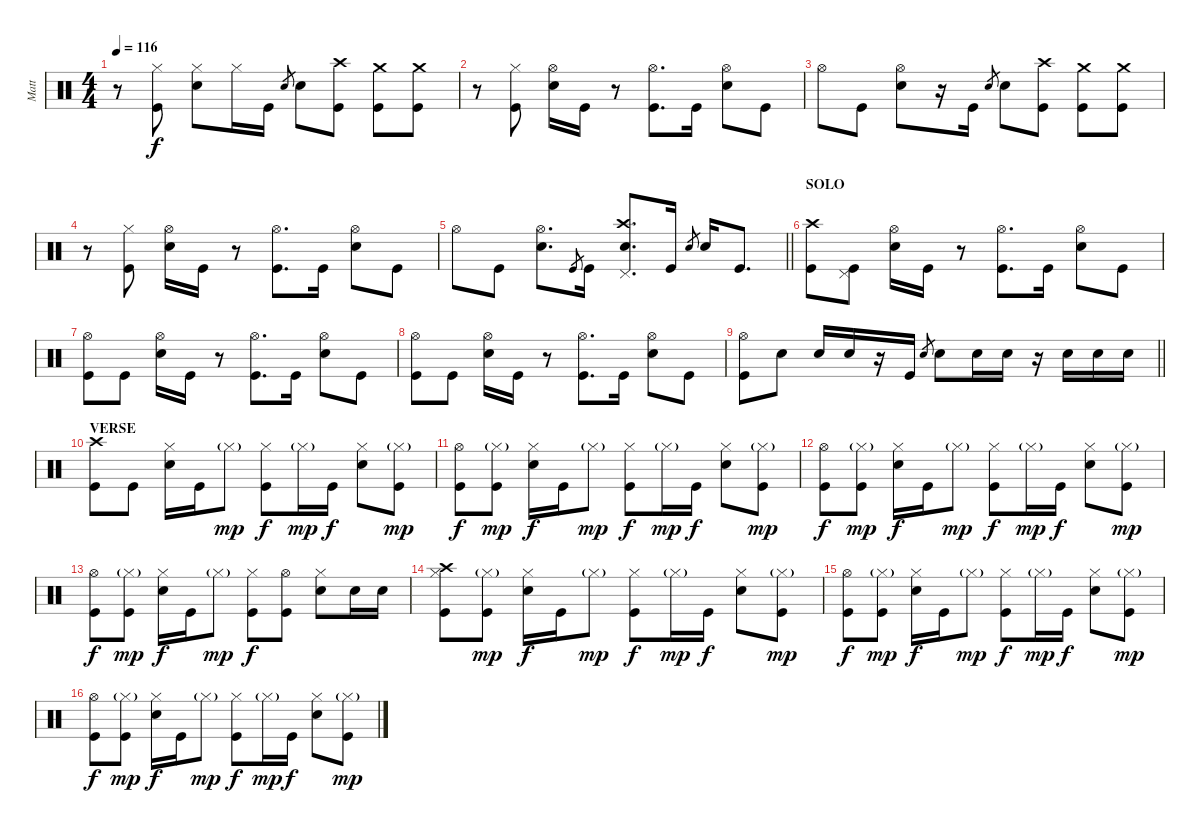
\track ("Matt" "Matt") {instrument percussion}
\staff {score}
\articulation defaults
\ts (4 4)
\tempo 116
\clef neutral
\ks c
r.8{dy f} ("Kick (hit)" "Hi-Hat (closed)").8 ("Snare (hit) 2" "Hi-Hat (closed)").8 "Hi-Hat (closed)".16 "Kick (hit)".16 "Snare (hit) 2".8{gr} "Snare (hit) 2".8 ("Crash high (hit)" "Kick (hit)").8 ("Crash medium (hit)" "Kick (hit)").8 ("Crash medium (hit)" "Kick (hit)").8 |
r.8 ("Kick (hit)" "Hi-Hat (closed)").8 ("Snare (hit) 2" "Hi-Hat (open)").16 "Kick (hit)".16 r.8 ("Kick (hit)" "Hi-Hat (open)").8{d} "Kick (hit)".16 ("Snare (hit) 2" "Hi-Hat (open)").8 "Kick (hit)".8 |
"Hi-Hat (open)".8 "Kick (hit)".8 ("Snare (hit) 2" "Hi-Hat (open)").8 r.16 "Kick (hit)".16 "Snare (hit) 2".8{gr} "Snare (hit) 2".8 ("Crash high (hit)" "Kick (hit)").8 ("Crash medium (hit)" "Kick (hit)").8 ("Crash medium (hit)" "Kick (hit)").8 |
r.8 ("Kick (hit)" "Hi-Hat (closed)").8 ("Snare (hit) 2" "Hi-Hat (open)").16 "Kick (hit)".16 r.8 ("Kick (hit)" "Hi-Hat (open)").8{d} "Kick (hit)".16 ("Snare (hit) 2" "Hi-Hat (open)").8 "Kick (hit)".8 |
\barLineRight lightlight "Hi-Hat (open)".8 "Kick (hit)".8
("Snare (hit) 2" "Hi-Hat (open)").8{d} "Kick (hit)".8{gr} "Kick (hit)".16 ("Crash high (hit)" "Snare (hit) 2" "Pedal Hi-Hat (hit)").8{d} "Kick (hit)".16 "Snare (hit) 2".8{gr} "Snare (hit) 2".16 "Kick (hit)".8{d} |
\section ("" "SOLO")
("Crash high (hit)" "Kick (hit)").8 ("Kick (hit)" "Pedal Hi-Hat (hit)").8 ("Snare (hit) 2" "Hi-Hat (open)").16 "Kick (hit)".16 r.8 ("Kick (hit)" "Hi-Hat (open)").8{d} "Kick (hit)".16 ("Snare (hit) 2" "Hi-Hat (open)").8 "Kick (hit)".8 |
("Kick (hit)" "Hi-Hat (open)").8 "Kick (hit)".8 ("Snare (hit) 2" "Hi-Hat (open)").16 "Kick (hit)".16 r.8 ("Kick (hit)" "Hi-Hat (open)").8{d} "Kick (hit)".16 ("Snare (hit) 2" "Hi-Hat (open)").8 "Kick (hit)".8 |
("Kick (hit)" "Hi-Hat (open)").8 "Kick (hit)".8 ("Snare (hit) 2" "Hi-Hat (open)").16 "Kick (hit)".16 r.8 ("Kick (hit)" "Hi-Hat (open)").8{d} "Kick (hit)".16 ("Snare (hit) 2" "Hi-Hat (open)").8 "Kick (hit)".8 |
\barLineRight lightlight
("Kick (hit)" "Hi-Hat (open)").8 "Snare (hit) 2".8 "Snare (hit) 2".16 "Snare (hit) 2".16 r.16 "Kick (hit)".16 "Snare (hit) 2".8{gr} "Snare (hit) 2".8 "Snare (hit) 2".16 "Snare (hit) 2".16 r.16 "Snare (hit) 2".16 "Snare (hit) 2".16 "Snare (hit) 2".16 |
\section ("" "VERSE")
("Crash high (hit)" "Kick (hit)").8 "Kick (hit)".8 ("Snare (hit) 2" "Hi-Hat (closed)").16 "Kick (hit)".16 "Hi-Hat (closed)"{g}.8{dy mp} ("Kick (hit)" "Hi-Hat (closed)").8{dy f} "Hi-Hat (closed)"{g}.16{dy mp} "Kick (hit)".16{dy f} ("Snare (hit) 2" "Hi-Hat (closed)").8 ("Kick (hit)" "Hi-Hat (closed)"{g}).8{dy mp} |
("Kick (hit)" "Hi-Hat (open)").8{dy f} ("Kick (hit)" "Hi-Hat (closed)"{g}).8{dy mp} ("Snare (hit) 2" "Hi-Hat (closed)").16{dy f} "Kick (hit)".16 "Hi-Hat (closed)"{g}.8{dy mp} ("Kick (hit)" "Hi-Hat (closed)").8{dy f} "Hi-Hat (closed)"{g}.16{dy mp} "Kick (hit)".16{dy f} ("Snare (hit) 2" "Hi-Hat (closed)").8 ("Kick (hit)" "Hi-Hat (closed)"{g}).8{dy mp} |
("Kick (hit)" "Hi-Hat (open)").8{dy f} ("Kick (hit)" "Hi-Hat (closed)"{g}).8{dy mp} ("Snare (hit) 2" "Hi-Hat (closed)").16{dy f} "Kick (hit)".16 "Hi-Hat (closed)"{g}.8{dy mp} ("Kick (hit)" "Hi-Hat (closed)").8{dy f} "Hi-Hat (closed)"{g}.16{dy mp} "Kick (hit)".16{dy f} ("Snare (hit) 2" "Hi-Hat (closed)").8 ("Kick (hit)" "Hi-Hat (closed)"{g}).8{dy mp} |
("Kick (hit)" "Hi-Hat (open)").8{dy f} ("Kick (hit)" "Hi-Hat (closed)"{g}).8{dy mp} ("Snare (hit) 2" "Hi-Hat (closed)").16{dy f} "Kick (hit)".16 "Hi-Hat (closed)"{g}.8{dy mp} ("Kick (hit)" "Hi-Hat (closed)").8{dy f} ("Kick (hit)" "Hi-Hat (open)").8 ("Snare (hit) 2" "Hi-Hat (closed)").8 "Snare (hit) 2".16 "Snare (hit) 2".16 |
("Crash high (hit)" "Kick (hit)" "Hi-Hat (closed)").8 ("Kick (hit)" "Hi-Hat (closed)"{g}).8{dy mp} ("Snare (hit) 2" "Hi-Hat (closed)").16{dy f} "Kick (hit)".16 "Hi-Hat (closed)"{g}.8{dy mp} ("Kick (hit)" "Hi-Hat (closed)").8{dy f} "Hi-Hat (closed)"{g}.16{dy mp} "Kick (hit)".16{dy f} ("Snare (hit) 2" "Hi-Hat (closed)").8 ("Kick (hit)" "Hi-Hat (closed)"{g}).8{dy mp} |
("Kick (hit)" "Hi-Hat (open)").8{dy f} ("Kick (hit)" "Hi-Hat (closed)"{g}).8{dy mp} ("Snare (hit) 2" "Hi-Hat (closed)").16{dy f} "Kick (hit)".16 "Hi-Hat (closed)"{g}.8{dy mp} ("Kick (hit)" "Hi-Hat (closed)").8{dy f} "Hi-Hat (closed)"{g}.16{dy mp} "Kick (hit)".16{dy f} ("Snare (hit) 2" "Hi-Hat (closed)").8 ("Kick (hit)" "Hi-Hat (closed)"{g}).8{dy mp} |
("Kick (hit)" "Hi-Hat (open)").8{dy f} ("Kick (hit)" "Hi-Hat (closed)"{g}).8{dy mp} ("Snare (hit) 2" "Hi-Hat (closed)").16{dy f} "Kick (hit)".16 "Hi-Hat (closed)"{g}.8{dy mp} ("Kick (hit)" "Hi-Hat (closed)").8{dy f} "Hi-Hat (closed)"{g}.16{dy mp} "Kick (hit)".16{dy f} ("Snare (hit) 2" "Hi-Hat (closed)").8 ("Kick (hit)" "Hi-Hat (closed)"{g}).8{dy mp}
